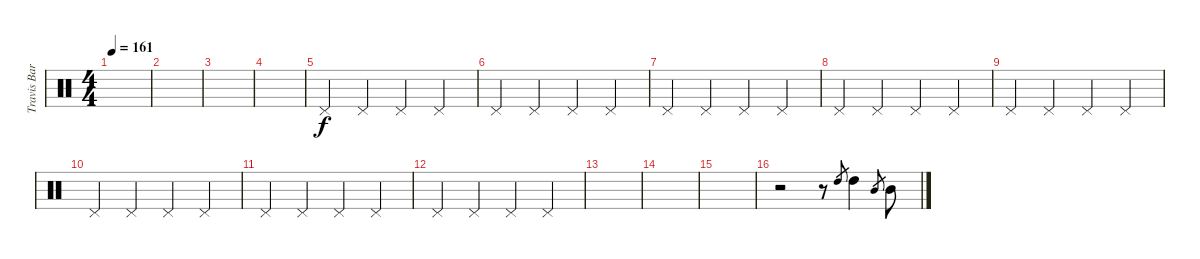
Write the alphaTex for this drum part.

\track ("Travis Barker - Overdubbed Drums" "Travis Bar") {instrument percussion}
\staff {score}
\articulation defaults
\ts (4 4)
\tempo 161
\clef neutral
\ks c
|
|
|
|
"Pedal Hi-Hat (hit)".4 "Pedal Hi-Hat (hit)".4 "Pedal Hi-Hat (hit)".4 "Pedal Hi-Hat (hit)".4 |
"Pedal Hi-Hat (hit)".4 "Pedal Hi-Hat (hit)".4 "Pedal Hi-Hat (hit)".4 "Pedal Hi-Hat (hit)".4 |
"Pedal Hi-Hat (hit)".4 "Pedal Hi-Hat (hit)".4 "Pedal Hi-Hat (hit)".4 "Pedal Hi-Hat (hit)".4 |
"Pedal Hi-Hat (hit)".4 "Pedal Hi-Hat (hit)".4 "Pedal Hi-Hat (hit)".4 "Pedal Hi-Hat (hit)".4 |
"Pedal Hi-Hat (hit)".4 "Pedal Hi-Hat (hit)".4 "Pedal Hi-Hat (hit)".4 "Pedal Hi-Hat (hit)".4 |
"Pedal Hi-Hat (hit)".4 "Pedal Hi-Hat (hit)".4 "Pedal Hi-Hat (hit)".4 "Pedal Hi-Hat (hit)".4 |
"Pedal Hi-Hat (hit)".4 "Pedal Hi-Hat (hit)".4 "Pedal Hi-Hat (hit)".4 "Pedal Hi-Hat (hit)".4 |
"Pedal Hi-Hat (hit)".4 "Pedal Hi-Hat (hit)".4 "Pedal Hi-Hat (hit)".4 "Pedal Hi-Hat (hit)".4 |
|
|
|
r.2 r.8 "High Tom (hit)".8{gr dy f} "High Tom (hit)".4 "Mid Tom (hit)".8{gr} "Mid Tom (hit)".8
